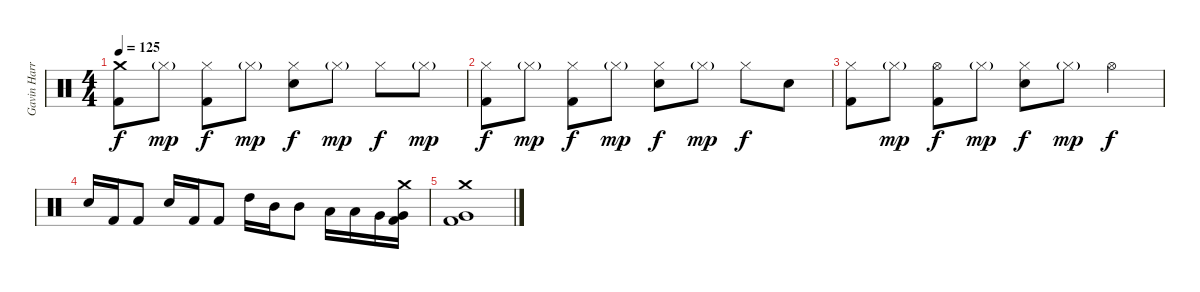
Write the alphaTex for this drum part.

\track ("Gavin Harrison" "Gavin Harr") {instrument percussion}
\staff {score}
\articulation defaults
\ts (4 4)
\tempo 125
\clef neutral
\ks c
("Crash medium (hit)" "Kick (hit) 2").8{dy f} "Hi-Hat (closed)"{g}.8{dy mp} ("Hi-Hat (closed)" "Kick (hit) 2").8{dy f} "Hi-Hat (closed)"{g}.8{dy mp} ("Hi-Hat (closed)" "Electric Snare (hit)").8{dy f} "Hi-Hat (closed)"{g}.8{dy mp} "Hi-Hat (closed)".8{dy f} "Hi-Hat (closed)"{g}.8{dy mp} |
("Hi-Hat (closed)" "Kick (hit) 2").8{dy f} "Hi-Hat (closed)"{g}.8{dy mp} ("Hi-Hat (closed)" "Kick (hit) 2").8{dy f} "Hi-Hat (closed)"{g}.8{dy mp} ("Hi-Hat (closed)" "Electric Snare (hit)").8{dy f} "Hi-Hat (closed)"{g}.8{dy mp} "Hi-Hat (closed)".8{dy f} "Electric Snare (hit)".8 |
("Hi-Hat (closed)" "Kick (hit) 2").8 "Hi-Hat (closed)"{g}.8{dy mp} ("Hi-Hat (open)" "Kick (hit) 2").8{dy f} "Hi-Hat (closed)"{g}.8{dy mp} ("Hi-Hat (closed)" "Electric Snare (hit)").8{dy f} "Hi-Hat (closed)"{g}.8{dy mp} "Hi-Hat (open)".4{dy f} |
"Electric Snare (hit)".16 "Kick (hit) 2".16 "Kick (hit) 2".8 "Electric Snare (hit)".16 "Kick (hit) 2".16 "Kick (hit) 2".8 "High Tom (hit)".16 "Mid Tom (hit)".16 "Mid Tom (hit)".8 "Low Tom (hit)".16 "Low Tom (hit)".16 "Very Low Tom (hit)".16 ("Crash medium (hit)" "Very Low Tom (hit)" "Kick (hit) 2").16 |
("Crash medium (hit)" "Very Low Tom (hit)" "Kick (hit) 2").1
